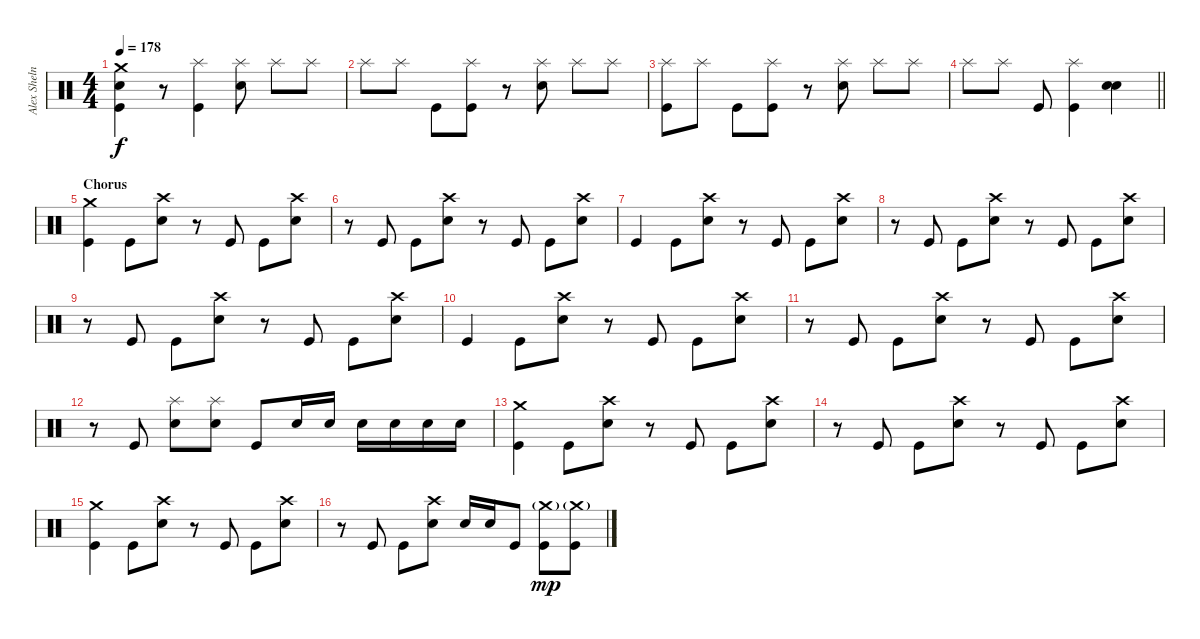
\track ("Alex Shelnut" "Alex Sheln") {instrument percussion}
\staff {score}
\articulation defaults
\ts (4 4)
\tempo 178
\clef neutral
\ks c
("Crash medium (hit)" "Electric Snare (hit)" "Kick (hit)").4{dy f} r.8 ("Splash (hit)" "Kick (hit)").4 ("Splash (hit)" "Electric Snare (hit)").8 "Splash (hit)".8 "Splash (hit)".8 |
"Splash (hit)".8 "Splash (hit)".8 "Kick (hit)".8 ("Splash (hit)" "Kick (hit)").8 r.8 ("Splash (hit)" "Electric Snare (hit)").8 "Splash (hit)".8 "Splash (hit)".8 |
("Splash (hit)" "Kick (hit)").8 "Splash (hit)".8 "Kick (hit)".8 ("Splash (hit)" "Kick (hit)").8 r.8 ("Splash (hit)" "Electric Snare (hit)").8 "Splash (hit)".8 "Splash (hit)".8 |
\barLineRight lightlight "Splash (hit)".8 "Splash (hit)".8 "Kick (hit)".8
("Splash (hit)" "Kick (hit)").4 ("Electric Snare (hit)" "Electric Snare (hit)").4 |
\section ("" "Chorus")
("Crash medium (hit)" "Kick (hit)").4 "Kick (hit)".8 ("Crash high (hit)" "Electric Snare (hit)").8 r.8 "Kick (hit)".8 "Kick (hit)".8 ("Crash high (hit)" "Electric Snare (hit)").8 |
r.8 "Kick (hit)".8 "Kick (hit)".8 ("Crash high (hit)" "Electric Snare (hit)").8 r.8 "Kick (hit)".8 "Kick (hit)".8 ("Crash high (hit)" "Electric Snare (hit)").8 |
"Kick (hit)".4 "Kick (hit)".8 ("Crash high (hit)" "Electric Snare (hit)").8 r.8 "Kick (hit)".8 "Kick (hit)".8 ("Crash high (hit)" "Electric Snare (hit)").8 |
r.8 "Kick (hit)".8 "Kick (hit)".8 ("Crash high (hit)" "Electric Snare (hit)").8 r.8 "Kick (hit)".8 "Kick (hit)".8 ("Crash high (hit)" "Electric Snare (hit)").8 |
r.8 "Kick (hit)".8 "Kick (hit)".8 ("Crash high (hit)" "Electric Snare (hit)").8 r.8 "Kick (hit)".8 "Kick (hit)".8 ("Crash high (hit)" "Electric Snare (hit)").8 |
"Kick (hit)".4 "Kick (hit)".8 ("Crash high (hit)" "Electric Snare (hit)").8 r.8 "Kick (hit)".8 "Kick (hit)".8 ("Crash high (hit)" "Electric Snare (hit)").8 |
r.8 "Kick (hit)".8 "Kick (hit)".8 ("Crash high (hit)" "Electric Snare (hit)").8 r.8 "Kick (hit)".8 "Kick (hit)".8 ("Crash high (hit)" "Electric Snare (hit)").8 |
r.8 "Kick (hit)".8 ("Splash (hit)" "Electric Snare (hit)").8 ("Splash (hit)" "Electric Snare (hit)").8 "Kick (hit)".8 "Electric Snare (hit)".16 "Electric Snare (hit)".16 "Electric Snare (hit)".16 "Electric Snare (hit)".16 "Electric Snare (hit)".16 "Electric Snare (hit)".16 |
("Crash medium (hit)" "Kick (hit)").4 "Kick (hit)".8 ("Crash high (hit)" "Electric Snare (hit)").8 r.8 "Kick (hit)".8 "Kick (hit)".8 ("Crash high (hit)" "Electric Snare (hit)").8 |
r.8 "Kick (hit)".8 "Kick (hit)".8 ("Crash high (hit)" "Electric Snare (hit)").8 r.8 "Kick (hit)".8 "Kick (hit)".8 ("Crash high (hit)" "Electric Snare (hit)").8 |
("Crash medium (hit)" "Kick (hit)").4 "Kick (hit)".8 ("Crash high (hit)" "Electric Snare (hit)").8 r.8 "Kick (hit)".8 "Kick (hit)".8 ("Crash high (hit)" "Electric Snare (hit)").8 |
r.8 "Kick (hit)".8 "Kick (hit)".8 ("Crash high (hit)" "Electric Snare (hit)").8 "Electric Snare (hit)".16 "Electric Snare (hit)".16 "Kick (hit)".8 ("Crash medium (hit)"{g} "Kick (hit)").8{dy mp} ("Crash medium (hit)"{g} "Kick (hit)").8
